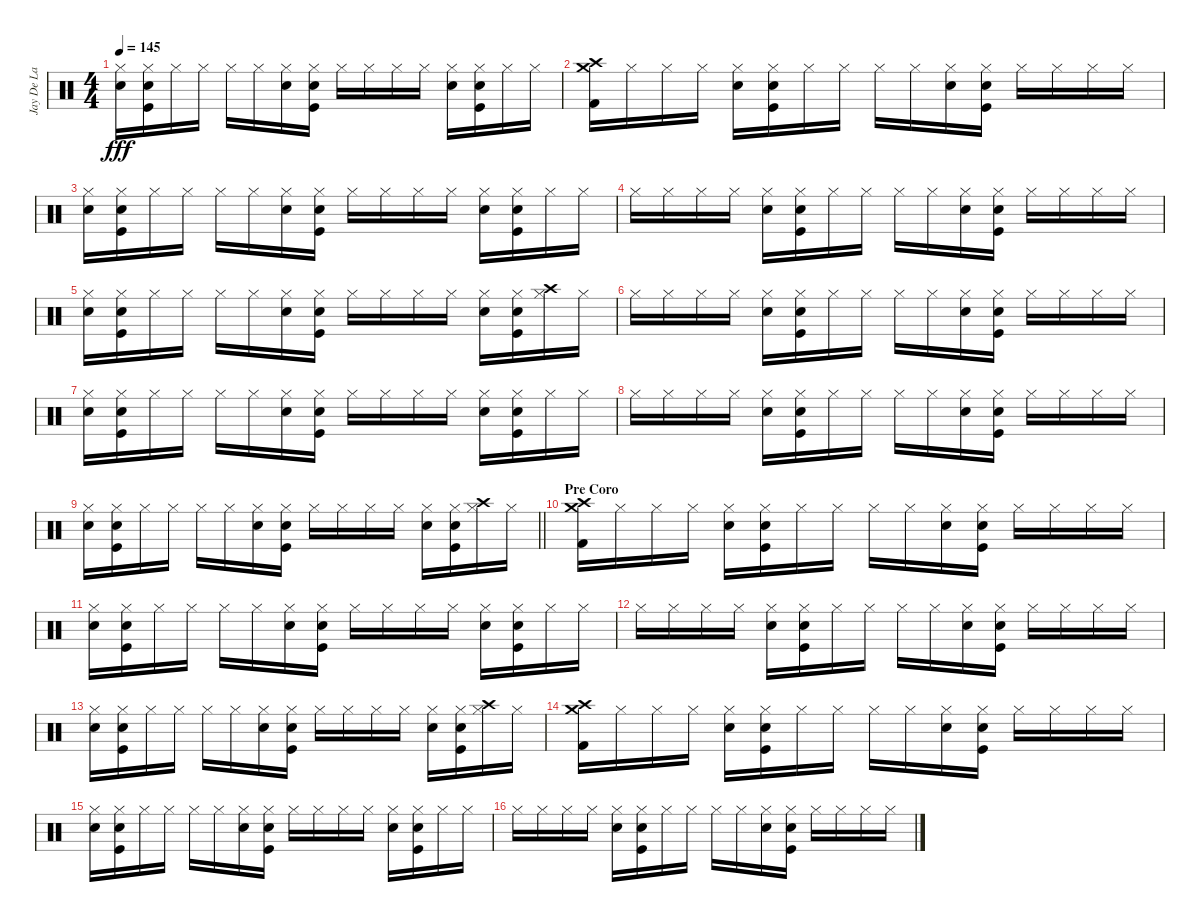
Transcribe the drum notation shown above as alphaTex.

\track ("Jay De La Cueva o C. G." "Jay De La ") {instrument percussion}
\staff {score}
\articulation defaults
\ts (4 4)
\tempo 145
\clef neutral
\ks c
("Snare (hit) 2" "Hi-Hat (closed)").16{dy fff} ("Kick (hit)" "Snare (hit) 2" "Hi-Hat (closed)").16 "Hi-Hat (closed)".16 "Hi-Hat (closed)".16 "Hi-Hat (closed)".16 "Hi-Hat (closed)".16 ("Snare (hit) 2" "Hi-Hat (closed)").16 ("Kick (hit)" "Snare (hit) 2" "Hi-Hat (closed)").16 "Hi-Hat (closed)".16 "Hi-Hat (closed)".16 "Hi-Hat (closed)".16 "Hi-Hat (closed)".16 ("Snare (hit) 2" "Hi-Hat (closed)").16 ("Kick (hit)" "Snare (hit) 2" "Hi-Hat (closed)").16 "Hi-Hat (closed)".16 "Hi-Hat (closed)".16 |
("Crash high (hit)" "Crash medium (hit)" "Kick (hit) 2").16 "Hi-Hat (closed)".16 "Hi-Hat (closed)".16 "Hi-Hat (closed)".16 ("Snare (hit) 2" "Hi-Hat (closed)").16 ("Kick (hit)" "Snare (hit) 2" "Hi-Hat (closed)").16 "Hi-Hat (closed)".16 "Hi-Hat (closed)".16 "Hi-Hat (closed)".16 "Hi-Hat (closed)".16 ("Snare (hit) 2" "Hi-Hat (closed)").16 ("Kick (hit)" "Snare (hit) 2" "Hi-Hat (closed)").16 "Hi-Hat (closed)".16 "Hi-Hat (closed)".16 "Hi-Hat (closed)".16 "Hi-Hat (closed)".16 |
("Snare (hit) 2" "Hi-Hat (closed)").16 ("Kick (hit)" "Snare (hit) 2" "Hi-Hat (closed)").16 "Hi-Hat (closed)".16 "Hi-Hat (closed)".16 "Hi-Hat (closed)".16 "Hi-Hat (closed)".16 ("Snare (hit) 2" "Hi-Hat (closed)").16 ("Kick (hit)" "Snare (hit) 2" "Hi-Hat (closed)").16 "Hi-Hat (closed)".16 "Hi-Hat (closed)".16 "Hi-Hat (closed)".16 "Hi-Hat (closed)".16 ("Snare (hit) 2" "Hi-Hat (closed)").16 ("Kick (hit)" "Snare (hit) 2" "Hi-Hat (closed)").16 "Hi-Hat (closed)".16 "Hi-Hat (closed)".16 |
"Hi-Hat (closed)".16 "Hi-Hat (closed)".16 "Hi-Hat (closed)".16 "Hi-Hat (closed)".16 ("Snare (hit) 2" "Hi-Hat (closed)").16 ("Kick (hit)" "Snare (hit) 2" "Hi-Hat (closed)").16 "Hi-Hat (closed)".16 "Hi-Hat (closed)".16 "Hi-Hat (closed)".16 "Hi-Hat (closed)".16 ("Snare (hit) 2" "Hi-Hat (closed)").16 ("Kick (hit)" "Snare (hit) 2" "Hi-Hat (closed)").16 "Hi-Hat (closed)".16 "Hi-Hat (closed)".16 "Hi-Hat (closed)".16 "Hi-Hat (closed)".16 |
("Snare (hit) 2" "Hi-Hat (closed)").16 ("Kick (hit)" "Snare (hit) 2" "Hi-Hat (closed)").16 "Hi-Hat (closed)".16 "Hi-Hat (closed)".16 "Hi-Hat (closed)".16 "Hi-Hat (closed)".16 ("Snare (hit) 2" "Hi-Hat (closed)").16 ("Kick (hit)" "Snare (hit) 2" "Hi-Hat (closed)").16 "Hi-Hat (closed)".16 "Hi-Hat (closed)".16 "Hi-Hat (closed)".16 "Hi-Hat (closed)".16 ("Snare (hit) 2" "Hi-Hat (closed)").16 ("Kick (hit)" "Snare (hit) 2" "Hi-Hat (closed)").16 ("Crash high (hit)" "Hi-Hat (closed)").16 "Hi-Hat (closed)".16 |
"Hi-Hat (closed)".16 "Hi-Hat (closed)".16 "Hi-Hat (closed)".16 "Hi-Hat (closed)".16 ("Snare (hit) 2" "Hi-Hat (closed)").16 ("Kick (hit)" "Snare (hit) 2" "Hi-Hat (closed)").16 "Hi-Hat (closed)".16 "Hi-Hat (closed)".16 "Hi-Hat (closed)".16 "Hi-Hat (closed)".16 ("Snare (hit) 2" "Hi-Hat (closed)").16 ("Kick (hit)" "Snare (hit) 2" "Hi-Hat (closed)").16 "Hi-Hat (closed)".16 "Hi-Hat (closed)".16 "Hi-Hat (closed)".16 "Hi-Hat (closed)".16 |
("Snare (hit) 2" "Hi-Hat (closed)").16 ("Kick (hit)" "Snare (hit) 2" "Hi-Hat (closed)").16 "Hi-Hat (closed)".16 "Hi-Hat (closed)".16 "Hi-Hat (closed)".16 "Hi-Hat (closed)".16 ("Snare (hit) 2" "Hi-Hat (closed)").16 ("Kick (hit)" "Snare (hit) 2" "Hi-Hat (closed)").16 "Hi-Hat (closed)".16 "Hi-Hat (closed)".16 "Hi-Hat (closed)".16 "Hi-Hat (closed)".16 ("Snare (hit) 2" "Hi-Hat (closed)").16 ("Kick (hit)" "Snare (hit) 2" "Hi-Hat (closed)").16 "Hi-Hat (closed)".16 "Hi-Hat (closed)".16 |
"Hi-Hat (closed)".16 "Hi-Hat (closed)".16 "Hi-Hat (closed)".16 "Hi-Hat (closed)".16 ("Snare (hit) 2" "Hi-Hat (closed)").16 ("Kick (hit)" "Snare (hit) 2" "Hi-Hat (closed)").16 "Hi-Hat (closed)".16 "Hi-Hat (closed)".16 "Hi-Hat (closed)".16 "Hi-Hat (closed)".16 ("Snare (hit) 2" "Hi-Hat (closed)").16 ("Kick (hit)" "Snare (hit) 2" "Hi-Hat (closed)").16 "Hi-Hat (closed)".16 "Hi-Hat (closed)".16 "Hi-Hat (closed)".16 "Hi-Hat (closed)".16 |
\barLineRight lightlight
("Snare (hit) 2" "Hi-Hat (closed)").16 ("Kick (hit)" "Snare (hit) 2" "Hi-Hat (closed)").16 "Hi-Hat (closed)".16 "Hi-Hat (closed)".16 "Hi-Hat (closed)".16 "Hi-Hat (closed)".16 ("Snare (hit) 2" "Hi-Hat (closed)").16 ("Kick (hit)" "Snare (hit) 2" "Hi-Hat (closed)").16 "Hi-Hat (closed)".16 "Hi-Hat (closed)".16 "Hi-Hat (closed)".16 "Hi-Hat (closed)".16 ("Snare (hit) 2" "Hi-Hat (closed)").16 ("Kick (hit)" "Snare (hit) 2" "Hi-Hat (closed)").16 ("Crash high (hit)" "Hi-Hat (closed)").16 "Hi-Hat (closed)".16 |
\section ("" "Pre Coro")
("Crash high (hit)" "Crash medium (hit)" "Kick (hit) 2").16 "Hi-Hat (closed)".16 "Hi-Hat (closed)".16 "Hi-Hat (closed)".16 ("Snare (hit) 2" "Hi-Hat (closed)").16 ("Kick (hit)" "Snare (hit) 2" "Hi-Hat (closed)").16 "Hi-Hat (closed)".16 "Hi-Hat (closed)".16 "Hi-Hat (closed)".16 "Hi-Hat (closed)".16 ("Snare (hit) 2" "Hi-Hat (closed)").16 ("Kick (hit)" "Snare (hit) 2" "Hi-Hat (closed)").16 "Hi-Hat (closed)".16 "Hi-Hat (closed)".16 "Hi-Hat (closed)".16 "Hi-Hat (closed)".16 |
("Snare (hit) 2" "Hi-Hat (closed)").16 ("Kick (hit)" "Snare (hit) 2" "Hi-Hat (closed)").16 "Hi-Hat (closed)".16 "Hi-Hat (closed)".16 "Hi-Hat (closed)".16 "Hi-Hat (closed)".16 ("Snare (hit) 2" "Hi-Hat (closed)").16 ("Kick (hit)" "Snare (hit) 2" "Hi-Hat (closed)").16 "Hi-Hat (closed)".16 "Hi-Hat (closed)".16 "Hi-Hat (closed)".16 "Hi-Hat (closed)".16 ("Snare (hit) 2" "Hi-Hat (closed)").16 ("Kick (hit)" "Snare (hit) 2" "Hi-Hat (closed)").16 "Hi-Hat (closed)".16 "Hi-Hat (closed)".16 |
"Hi-Hat (closed)".16 "Hi-Hat (closed)".16 "Hi-Hat (closed)".16 "Hi-Hat (closed)".16 ("Snare (hit) 2" "Hi-Hat (closed)").16 ("Kick (hit)" "Snare (hit) 2" "Hi-Hat (closed)").16 "Hi-Hat (closed)".16 "Hi-Hat (closed)".16 "Hi-Hat (closed)".16 "Hi-Hat (closed)".16 ("Snare (hit) 2" "Hi-Hat (closed)").16 ("Kick (hit)" "Snare (hit) 2" "Hi-Hat (closed)").16 "Hi-Hat (closed)".16 "Hi-Hat (closed)".16 "Hi-Hat (closed)".16 "Hi-Hat (closed)".16 |
("Snare (hit) 2" "Hi-Hat (closed)").16 ("Kick (hit)" "Snare (hit) 2" "Hi-Hat (closed)").16 "Hi-Hat (closed)".16 "Hi-Hat (closed)".16 "Hi-Hat (closed)".16 "Hi-Hat (closed)".16 ("Snare (hit) 2" "Hi-Hat (closed)").16 ("Kick (hit)" "Snare (hit) 2" "Hi-Hat (closed)").16 "Hi-Hat (closed)".16 "Hi-Hat (closed)".16 "Hi-Hat (closed)".16 "Hi-Hat (closed)".16 ("Snare (hit) 2" "Hi-Hat (closed)").16 ("Kick (hit)" "Snare (hit) 2" "Hi-Hat (closed)").16 ("Crash high (hit)" "Hi-Hat (closed)").16 "Hi-Hat (closed)".16 |
("Crash high (hit)" "Crash medium (hit)" "Kick (hit) 2").16 "Hi-Hat (closed)".16 "Hi-Hat (closed)".16 "Hi-Hat (closed)".16 ("Snare (hit) 2" "Hi-Hat (closed)").16 ("Kick (hit)" "Snare (hit) 2" "Hi-Hat (closed)").16 "Hi-Hat (closed)".16 "Hi-Hat (closed)".16 "Hi-Hat (closed)".16 "Hi-Hat (closed)".16 ("Snare (hit) 2" "Hi-Hat (closed)").16 ("Kick (hit)" "Snare (hit) 2" "Hi-Hat (closed)").16 "Hi-Hat (closed)".16 "Hi-Hat (closed)".16 "Hi-Hat (closed)".16 "Hi-Hat (closed)".16 |
("Snare (hit) 2" "Hi-Hat (closed)").16 ("Kick (hit)" "Snare (hit) 2" "Hi-Hat (closed)").16 "Hi-Hat (closed)".16 "Hi-Hat (closed)".16 "Hi-Hat (closed)".16 "Hi-Hat (closed)".16 ("Snare (hit) 2" "Hi-Hat (closed)").16 ("Kick (hit)" "Snare (hit) 2" "Hi-Hat (closed)").16 "Hi-Hat (closed)".16 "Hi-Hat (closed)".16 "Hi-Hat (closed)".16 "Hi-Hat (closed)".16 ("Snare (hit) 2" "Hi-Hat (closed)").16 ("Kick (hit)" "Snare (hit) 2" "Hi-Hat (closed)").16 "Hi-Hat (closed)".16 "Hi-Hat (closed)".16 |
"Hi-Hat (closed)".16 "Hi-Hat (closed)".16 "Hi-Hat (closed)".16 "Hi-Hat (closed)".16 ("Snare (hit) 2" "Hi-Hat (closed)").16 ("Kick (hit)" "Snare (hit) 2" "Hi-Hat (closed)").16 "Hi-Hat (closed)".16 "Hi-Hat (closed)".16 "Hi-Hat (closed)".16 "Hi-Hat (closed)".16 ("Snare (hit) 2" "Hi-Hat (closed)").16 ("Kick (hit)" "Snare (hit) 2" "Hi-Hat (closed)").16 "Hi-Hat (closed)".16 "Hi-Hat (closed)".16 "Hi-Hat (closed)".16 "Hi-Hat (closed)".16
